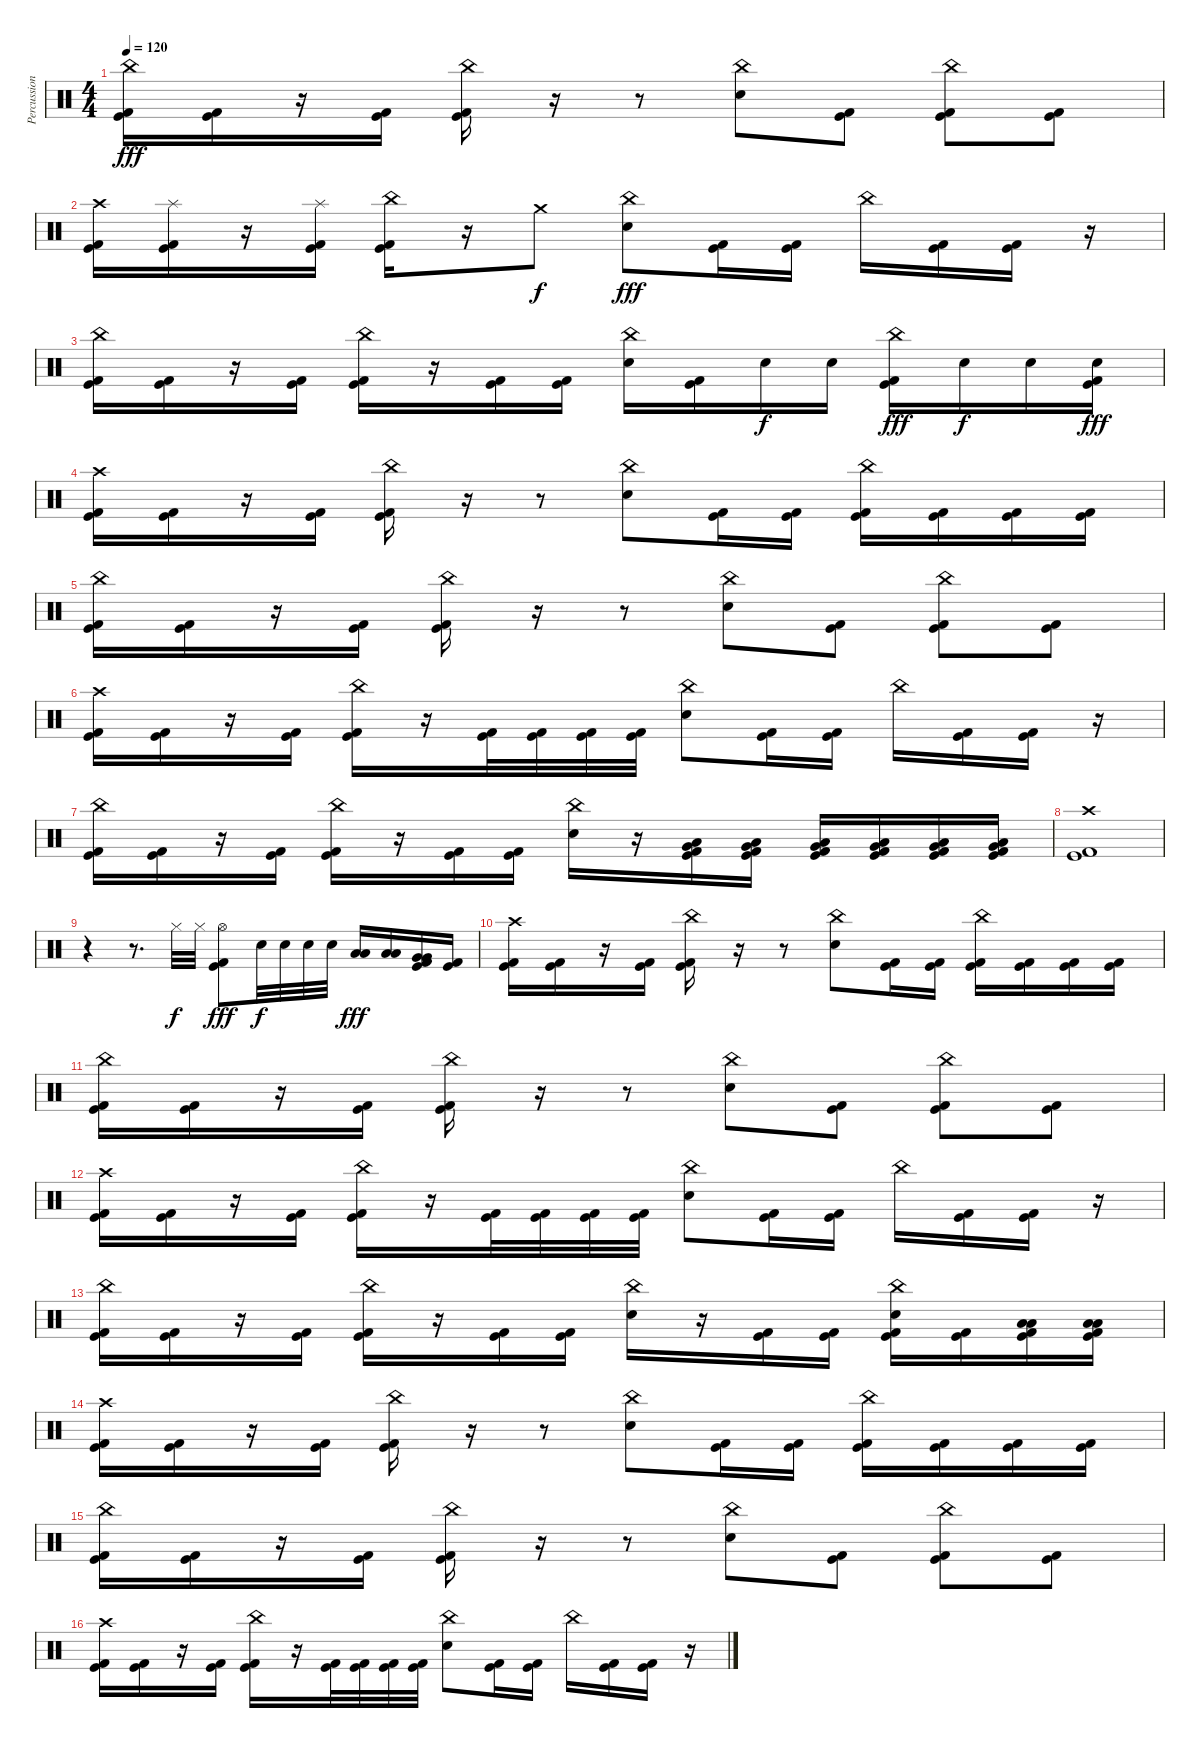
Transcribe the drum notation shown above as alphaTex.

\track ("Percussion" "Percussion") {instrument percussion}
\staff {score}
\articulation defaults
\ts (4 4)
\tempo 120
\clef neutral
\ks c
("China (hit)" "Kick (hit)" "Kick (hit) 2").16{dy fff} ("Kick (hit)" "Kick (hit) 2").16 r.16 ("Kick (hit)" "Kick (hit) 2").16 ("China (hit)" "Kick (hit)" "Kick (hit) 2").16 r.16 r.8 ("China (hit)" "Electric Snare (hit)").8 ("Kick (hit)" "Kick (hit) 2").8 ("China (hit)" "Kick (hit)" "Kick (hit) 2").8 ("Kick (hit)" "Kick (hit) 2").8 |
("Crash high (hit)" "Kick (hit)" "Kick (hit) 2").16 ("Splash (hit)" "Kick (hit)" "Kick (hit) 2").16 r.16 ("Splash (hit)" "Kick (hit)" "Kick (hit) 2").16 ("China (hit)" "Kick (hit)" "Kick (hit) 2").16 r.16 "Crash medium (hit)".8{dy f} ("China (hit)" "Electric Snare (hit)").8{dy fff} ("Kick (hit)" "Kick (hit) 2").16 ("Kick (hit)" "Kick (hit) 2").16 "China (hit)".16 ("Kick (hit)" "Kick (hit) 2").16 ("Kick (hit)" "Kick (hit) 2").16 r.16 |
("China (hit)" "Kick (hit)" "Kick (hit) 2").16 ("Kick (hit)" "Kick (hit) 2").16 r.16 ("Kick (hit)" "Kick (hit) 2").16 ("China (hit)" "Kick (hit)" "Kick (hit) 2").16 r.16 ("Kick (hit)" "Kick (hit) 2").16 ("Kick (hit)" "Kick (hit) 2").16 ("China (hit)" "Electric Snare (hit)").16 ("Kick (hit)" "Kick (hit) 2").16 "Electric Snare (hit)".16{dy f} "Electric Snare (hit)".16 ("China (hit)" "Kick (hit)" "Kick (hit) 2").16{dy fff} "Electric Snare (hit)".16{dy f} "Electric Snare (hit)".16 ("Electric Snare (hit)" "Kick (hit)" "Kick (hit) 2").16{dy fff} |
("Crash high (hit)" "Kick (hit)" "Kick (hit) 2").16 ("Kick (hit)" "Kick (hit) 2").16 r.16 ("Kick (hit)" "Kick (hit) 2").16 ("China (hit)" "Kick (hit)" "Kick (hit) 2").16 r.16 r.8 ("China (hit)" "Electric Snare (hit)").8 ("Kick (hit)" "Kick (hit) 2").16 ("Kick (hit)" "Kick (hit) 2").16 ("China (hit)" "Kick (hit)" "Kick (hit) 2").16 ("Kick (hit)" "Kick (hit) 2").16 ("Kick (hit)" "Kick (hit) 2").16 ("Kick (hit)" "Kick (hit) 2").16 |
("China (hit)" "Kick (hit)" "Kick (hit) 2").16 ("Kick (hit)" "Kick (hit) 2").16 r.16 ("Kick (hit)" "Kick (hit) 2").16 ("China (hit)" "Kick (hit)" "Kick (hit) 2").16 r.16 r.8 ("China (hit)" "Electric Snare (hit)").8 ("Kick (hit)" "Kick (hit) 2").8 ("China (hit)" "Kick (hit)" "Kick (hit) 2").8 ("Kick (hit)" "Kick (hit) 2").8 |
("Crash high (hit)" "Kick (hit)" "Kick (hit) 2").16 ("Kick (hit)" "Kick (hit) 2").16 r.16 ("Kick (hit)" "Kick (hit) 2").16 ("China (hit)" "Kick (hit)" "Kick (hit) 2").16 r.16 ("Kick (hit)" "Kick (hit) 2").32 ("Kick (hit)" "Kick (hit) 2").32 ("Kick (hit)" "Kick (hit) 2").32 ("Kick (hit)" "Kick (hit) 2").32 ("China (hit)" "Electric Snare (hit)").8 ("Kick (hit)" "Kick (hit) 2").16 ("Kick (hit)" "Kick (hit) 2").16 "China (hit)".16 ("Kick (hit)" "Kick (hit) 2").16 ("Kick (hit)" "Kick (hit) 2").16 r.16 |
("China (hit)" "Kick (hit)" "Kick (hit) 2").16 ("Kick (hit)" "Kick (hit) 2").16 r.16 ("Kick (hit)" "Kick (hit) 2").16 ("China (hit)" "Kick (hit)" "Kick (hit) 2").16 r.16 ("Kick (hit)" "Kick (hit) 2").16 ("Kick (hit)" "Kick (hit) 2").16 ("China (hit)" "Electric Snare (hit)").16 r.16 ("Low Tom (hit)" "Very Low Tom (hit)" "Kick (hit)" "Kick (hit) 2").16 ("Low Tom (hit)" "Very Low Tom (hit)" "Kick (hit)" "Kick (hit) 2").16 ("Low Tom (hit)" "Very Low Tom (hit)" "Kick (hit)" "Kick (hit) 2").16 ("Low Tom (hit)" "Very Low Tom (hit)" "Kick (hit)" "Kick (hit) 2").16 ("Low Tom (hit)" "Very Low Tom (hit)" "Kick (hit)" "Kick (hit) 2").16 ("Low Tom (hit)" "Very Low Tom (hit)" "Kick (hit)" "Kick (hit) 2").16 |
("Crash high (hit)" "Kick (hit)" "Kick (hit) 2").1 |
r.4 r.8{d} "Hi-Hat (closed)".32{dy f} "Hi-Hat (closed)".32 ("Hi-Hat (open)" "Kick (hit)" "Kick (hit) 2").8{dy fff} "Electric Snare (hit)".32{dy f} "Electric Snare (hit)".32 "Electric Snare (hit)".32 "Electric Snare (hit)".32 ("Low Tom (hit)" "Low Tom (hit)").16{dy fff} ("Low Tom (hit)" "Low Tom (hit)").16 ("Very Low Tom (hit)" "Very Low Tom (hit)" "Kick (hit)" "Kick (hit) 2").16 ("Kick (hit)" "Kick (hit) 2").16 |
("Crash high (hit)" "Kick (hit)" "Kick (hit) 2").16 ("Kick (hit)" "Kick (hit) 2").16 r.16 ("Kick (hit)" "Kick (hit) 2").16 ("China (hit)" "Kick (hit)" "Kick (hit) 2").16 r.16 r.8 ("China (hit)" "Electric Snare (hit)").8 ("Kick (hit)" "Kick (hit) 2").16 ("Kick (hit)" "Kick (hit) 2").16 ("China (hit)" "Kick (hit)" "Kick (hit) 2").16 ("Kick (hit)" "Kick (hit) 2").16 ("Kick (hit)" "Kick (hit) 2").16 ("Kick (hit)" "Kick (hit) 2").16 |
("China (hit)" "Kick (hit)" "Kick (hit) 2").16 ("Kick (hit)" "Kick (hit) 2").16 r.16 ("Kick (hit)" "Kick (hit) 2").16 ("China (hit)" "Kick (hit)" "Kick (hit) 2").16 r.16 r.8 ("China (hit)" "Electric Snare (hit)").8 ("Kick (hit)" "Kick (hit) 2").8 ("China (hit)" "Kick (hit)" "Kick (hit) 2").8 ("Kick (hit)" "Kick (hit) 2").8 |
("Crash high (hit)" "Kick (hit)" "Kick (hit) 2").16 ("Kick (hit)" "Kick (hit) 2").16 r.16 ("Kick (hit)" "Kick (hit) 2").16 ("China (hit)" "Kick (hit)" "Kick (hit) 2").16 r.16 ("Kick (hit)" "Kick (hit) 2").32 ("Kick (hit)" "Kick (hit) 2").32 ("Kick (hit)" "Kick (hit) 2").32 ("Kick (hit)" "Kick (hit) 2").32 ("China (hit)" "Electric Snare (hit)").8 ("Kick (hit)" "Kick (hit) 2").16 ("Kick (hit)" "Kick (hit) 2").16 "China (hit)".16 ("Kick (hit)" "Kick (hit) 2").16 ("Kick (hit)" "Kick (hit) 2").16 r.16 |
("China (hit)" "Kick (hit)" "Kick (hit) 2").16 ("Kick (hit)" "Kick (hit) 2").16 r.16 ("Kick (hit)" "Kick (hit) 2").16 ("China (hit)" "Kick (hit)" "Kick (hit) 2").16 r.16 ("Kick (hit)" "Kick (hit) 2").16 ("Kick (hit)" "Kick (hit) 2").16 ("China (hit)" "Electric Snare (hit)").16 r.16 ("Kick (hit)" "Kick (hit) 2").16 ("Kick (hit)" "Kick (hit) 2").16 ("China (hit)" "Electric Snare (hit)" "Kick (hit)" "Kick (hit) 2").16 ("Kick (hit)" "Kick (hit) 2").16 ("Low Tom (hit)" "Low Tom (hit)" "Kick (hit)" "Kick (hit) 2").16 ("Low Tom (hit)" "Low Tom (hit)" "Kick (hit)" "Kick (hit) 2").16 |
("Crash high (hit)" "Kick (hit)" "Kick (hit) 2").16 ("Kick (hit)" "Kick (hit) 2").16 r.16 ("Kick (hit)" "Kick (hit) 2").16 ("China (hit)" "Kick (hit)" "Kick (hit) 2").16 r.16 r.8 ("China (hit)" "Electric Snare (hit)").8 ("Kick (hit)" "Kick (hit) 2").16 ("Kick (hit)" "Kick (hit) 2").16 ("China (hit)" "Kick (hit)" "Kick (hit) 2").16 ("Kick (hit)" "Kick (hit) 2").16 ("Kick (hit)" "Kick (hit) 2").16 ("Kick (hit)" "Kick (hit) 2").16 |
("China (hit)" "Kick (hit)" "Kick (hit) 2").16 ("Kick (hit)" "Kick (hit) 2").16 r.16 ("Kick (hit)" "Kick (hit) 2").16 ("China (hit)" "Kick (hit)" "Kick (hit) 2").16 r.16 r.8 ("China (hit)" "Electric Snare (hit)").8 ("Kick (hit)" "Kick (hit) 2").8 ("China (hit)" "Kick (hit)" "Kick (hit) 2").8 ("Kick (hit)" "Kick (hit) 2").8 |
("Crash high (hit)" "Kick (hit)" "Kick (hit) 2").16 ("Kick (hit)" "Kick (hit) 2").16 r.16 ("Kick (hit)" "Kick (hit) 2").16 ("China (hit)" "Kick (hit)" "Kick (hit) 2").16 r.16 ("Kick (hit)" "Kick (hit) 2").32 ("Kick (hit)" "Kick (hit) 2").32 ("Kick (hit)" "Kick (hit) 2").32 ("Kick (hit)" "Kick (hit) 2").32 ("China (hit)" "Electric Snare (hit)").8 ("Kick (hit)" "Kick (hit) 2").16 ("Kick (hit)" "Kick (hit) 2").16 "China (hit)".16 ("Kick (hit)" "Kick (hit) 2").16 ("Kick (hit)" "Kick (hit) 2").16 r.16
